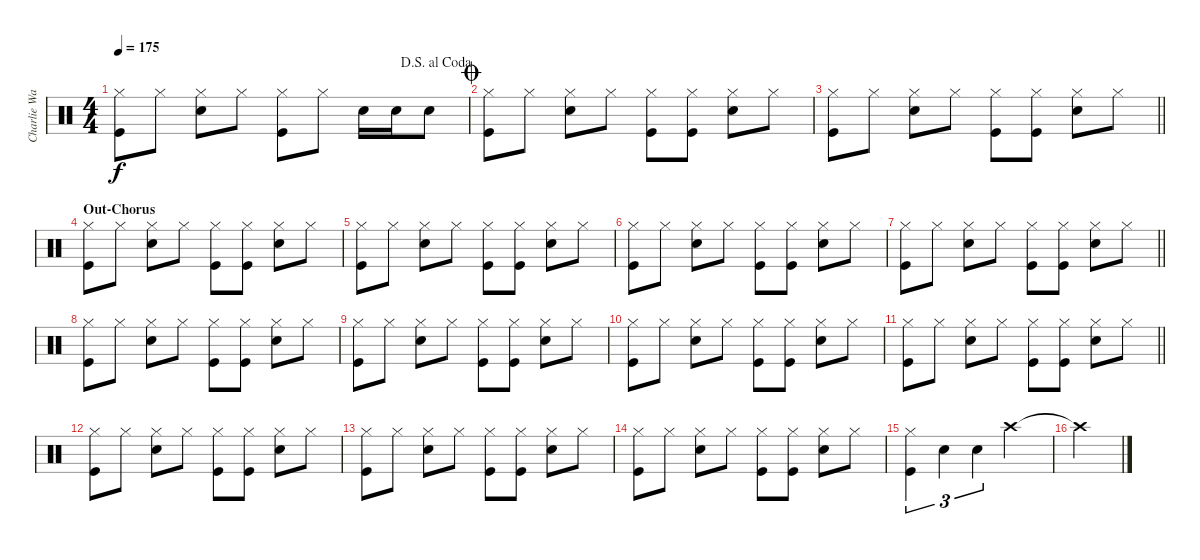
\track ("Charlie Watts" "Charlie Wa") {instrument percussion}
\staff {score}
\articulation defaults
\ts (4 4)
\jump dalsegnoalcoda
\tempo 175
\clef neutral
\ks c
("Hi-Hat (closed)" "Kick (hit)").8{dy f} "Hi-Hat (closed)".8 ("Hi-Hat (closed)" "Snare (hit) 2").8 "Hi-Hat (closed)".8 ("Hi-Hat (closed)" "Kick (hit)").8 "Hi-Hat (closed)".8 "Snare (hit) 2".16 "Snare (hit) 2".16 "Snare (hit) 2".8 |
\jump coda
("Hi-Hat (closed)" "Kick (hit)").8 "Hi-Hat (closed)".8 ("Hi-Hat (closed)" "Snare (hit) 2").8 "Hi-Hat (closed)".8 ("Hi-Hat (closed)" "Kick (hit)").8 ("Hi-Hat (closed)" "Kick (hit)").8 ("Hi-Hat (closed)" "Snare (hit) 2").8 "Hi-Hat (closed)".8 |
\barLineRight lightlight
("Hi-Hat (closed)" "Kick (hit)").8 "Hi-Hat (closed)".8 ("Hi-Hat (closed)" "Snare (hit) 2").8 "Hi-Hat (closed)".8 ("Hi-Hat (closed)" "Kick (hit)").8 ("Hi-Hat (closed)" "Kick (hit)").8 ("Hi-Hat (closed)" "Snare (hit) 2").8 "Hi-Hat (closed)".8 |
\section ("" "Out-Chorus")
("Hi-Hat (closed)" "Kick (hit)").8 "Hi-Hat (closed)".8 ("Hi-Hat (closed)" "Snare (hit) 2").8 "Hi-Hat (closed)".8 ("Hi-Hat (closed)" "Kick (hit)").8 ("Hi-Hat (closed)" "Kick (hit)").8 ("Hi-Hat (closed)" "Snare (hit) 2").8 "Hi-Hat (closed)".8 |
("Hi-Hat (closed)" "Kick (hit)").8 "Hi-Hat (closed)".8 ("Hi-Hat (closed)" "Snare (hit) 2").8 "Hi-Hat (closed)".8 ("Hi-Hat (closed)" "Kick (hit)").8 ("Hi-Hat (closed)" "Kick (hit)").8 ("Hi-Hat (closed)" "Snare (hit) 2").8 "Hi-Hat (closed)".8 |
("Hi-Hat (closed)" "Kick (hit)").8 "Hi-Hat (closed)".8 ("Hi-Hat (closed)" "Snare (hit) 2").8 "Hi-Hat (closed)".8 ("Hi-Hat (closed)" "Kick (hit)").8 ("Hi-Hat (closed)" "Kick (hit)").8 ("Hi-Hat (closed)" "Snare (hit) 2").8 "Hi-Hat (closed)".8 |
\barLineRight lightlight
("Hi-Hat (closed)" "Kick (hit)").8 "Hi-Hat (closed)".8 ("Hi-Hat (closed)" "Snare (hit) 2").8 "Hi-Hat (closed)".8 ("Hi-Hat (closed)" "Kick (hit)").8 ("Hi-Hat (closed)" "Kick (hit)").8 ("Hi-Hat (closed)" "Snare (hit) 2").8 "Hi-Hat (closed)".8 |
("Hi-Hat (closed)" "Kick (hit)").8 "Hi-Hat (closed)".8 ("Hi-Hat (closed)" "Snare (hit) 2").8 "Hi-Hat (closed)".8 ("Hi-Hat (closed)" "Kick (hit)").8 ("Hi-Hat (closed)" "Kick (hit)").8 ("Hi-Hat (closed)" "Snare (hit) 2").8 "Hi-Hat (closed)".8 |
("Hi-Hat (closed)" "Kick (hit)").8 "Hi-Hat (closed)".8 ("Hi-Hat (closed)" "Snare (hit) 2").8 "Hi-Hat (closed)".8 ("Hi-Hat (closed)" "Kick (hit)").8 ("Hi-Hat (closed)" "Kick (hit)").8 ("Hi-Hat (closed)" "Snare (hit) 2").8 "Hi-Hat (closed)".8 |
("Hi-Hat (closed)" "Kick (hit)").8 "Hi-Hat (closed)".8 ("Hi-Hat (closed)" "Snare (hit) 2").8 "Hi-Hat (closed)".8 ("Hi-Hat (closed)" "Kick (hit)").8 ("Hi-Hat (closed)" "Kick (hit)").8 ("Hi-Hat (closed)" "Snare (hit) 2").8 "Hi-Hat (closed)".8 |
\barLineRight lightlight
("Hi-Hat (closed)" "Kick (hit)").8 "Hi-Hat (closed)".8 ("Hi-Hat (closed)" "Snare (hit) 2").8 "Hi-Hat (closed)".8 ("Hi-Hat (closed)" "Kick (hit)").8 ("Hi-Hat (closed)" "Kick (hit)").8 ("Hi-Hat (closed)" "Snare (hit) 2").8 "Hi-Hat (closed)".8 |
("Hi-Hat (closed)" "Kick (hit)").8 "Hi-Hat (closed)".8 ("Hi-Hat (closed)" "Snare (hit) 2").8 "Hi-Hat (closed)".8 ("Hi-Hat (closed)" "Kick (hit)").8 ("Hi-Hat (closed)" "Kick (hit)").8 ("Hi-Hat (closed)" "Snare (hit) 2").8 "Hi-Hat (closed)".8 |
("Hi-Hat (closed)" "Kick (hit)").8 "Hi-Hat (closed)".8 ("Hi-Hat (closed)" "Snare (hit) 2").8 "Hi-Hat (closed)".8 ("Hi-Hat (closed)" "Kick (hit)").8 ("Hi-Hat (closed)" "Kick (hit)").8 ("Hi-Hat (closed)" "Snare (hit) 2").8 "Hi-Hat (closed)".8 |
("Hi-Hat (closed)" "Kick (hit)").8 "Hi-Hat (closed)".8 ("Hi-Hat (closed)" "Snare (hit) 2").8 "Hi-Hat (closed)".8 ("Hi-Hat (closed)" "Kick (hit)").8 ("Hi-Hat (closed)" "Kick (hit)").8 ("Hi-Hat (closed)" "Snare (hit) 2").8 "Hi-Hat (closed)".8 |
("Hi-Hat (closed)" "Kick (hit)").4{tu (3 2)} "Snare (hit) 2".4{tu (3 2)} "Snare (hit) 2".4{tu (3 2)} "Crash high (hit)".2 |
"Crash high (hit)"{t}.2
